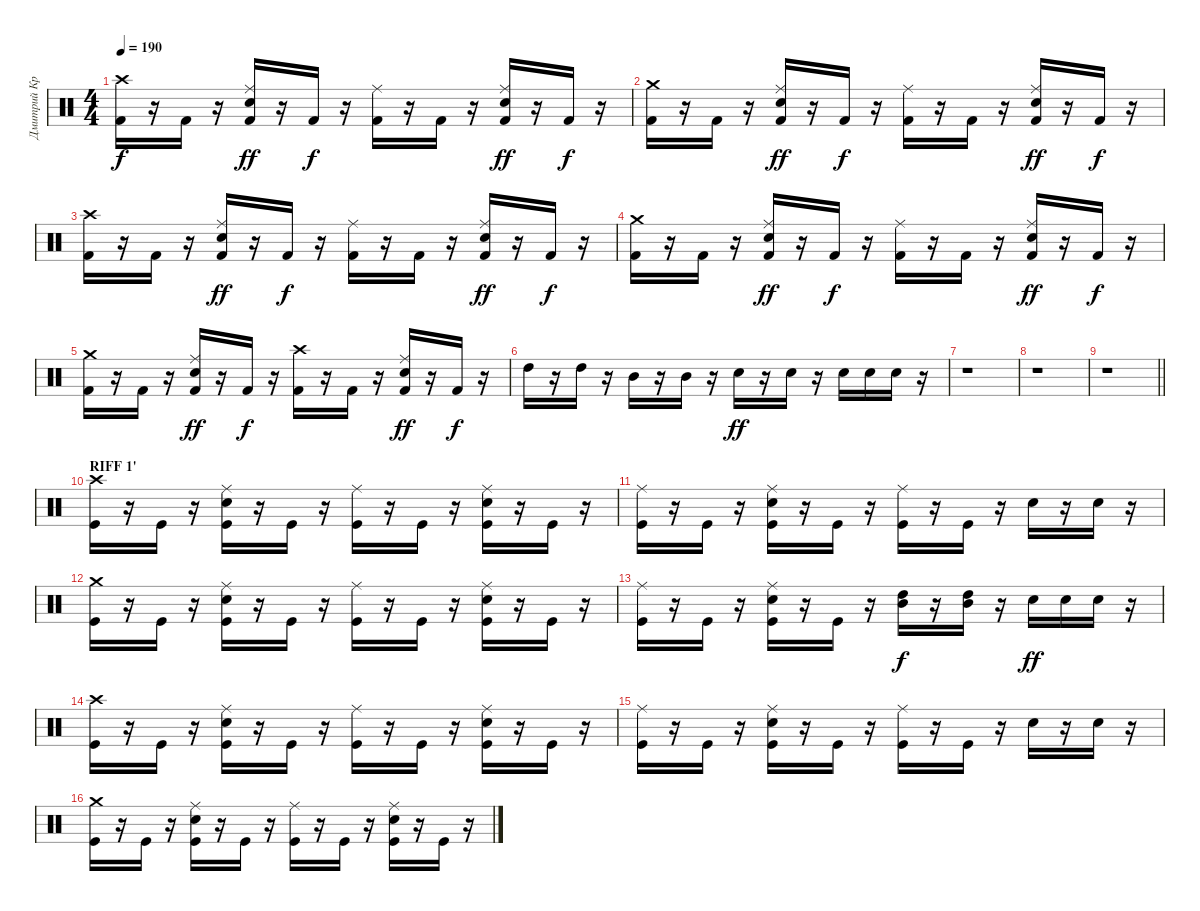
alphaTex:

\track ("Дмитрий Кривенков" "Дмитрий Кр") {instrument percussion}
\staff {score}
\articulation defaults
\ts (4 4)
\tempo 190
\clef neutral
\ks c
("Crash high (hit)" "Kick (hit) 2").16{dy f} r.16 "Kick (hit) 2".16 r.16 ("Ride (middle)" "Kick (hit) 2" "Snare (hit) 2").16{dy ff} r.16 "Kick (hit) 2".16{dy f} r.16 ("Ride (middle)" "Kick (hit) 2").16 r.16 "Kick (hit) 2".16 r.16 ("Ride (middle)" "Kick (hit) 2" "Snare (hit) 2").16{dy ff} r.16 "Kick (hit) 2".16{dy f} r.16 |
("Crash medium (hit)" "Kick (hit) 2").16 r.16 "Kick (hit) 2".16 r.16 ("Ride (middle)" "Snare (hit) 2" "Kick (hit) 2").16{dy ff} r.16 "Kick (hit) 2".16{dy f} r.16 ("Ride (middle)" "Kick (hit) 2").16 r.16 "Kick (hit) 2".16 r.16 ("Ride (middle)" "Snare (hit) 2" "Kick (hit) 2").16{dy ff} r.16 "Kick (hit) 2".16{dy f} r.16 |
("Crash high (hit)" "Kick (hit) 2").16 r.16 "Kick (hit) 2".16 r.16 ("Ride (middle)" "Kick (hit) 2" "Snare (hit) 2").16{dy ff} r.16 "Kick (hit) 2".16{dy f} r.16 ("Ride (middle)" "Kick (hit) 2").16 r.16 "Kick (hit) 2".16 r.16 ("Ride (middle)" "Kick (hit) 2" "Snare (hit) 2").16{dy ff} r.16 "Kick (hit) 2".16{dy f} r.16 |
("Crash medium (hit)" "Kick (hit) 2").16 r.16 "Kick (hit) 2".16 r.16 ("Ride (middle)" "Snare (hit) 2" "Kick (hit) 2").16{dy ff} r.16 "Kick (hit) 2".16{dy f} r.16 ("Ride (middle)" "Kick (hit) 2").16 r.16 "Kick (hit) 2".16 r.16 ("Ride (middle)" "Snare (hit) 2" "Kick (hit) 2").16{dy ff} r.16 "Kick (hit) 2".16{dy f} r.16 |
("Crash medium (hit)" "Kick (hit) 2").16 r.16 "Kick (hit) 2".16 r.16 ("Ride (middle)" "Snare (hit) 2" "Kick (hit) 2").16{dy ff} r.16 "Kick (hit) 2".16{dy f} r.16 ("Crash high (hit)" "Kick (hit) 2").16 r.16 "Kick (hit) 2".16 r.16 ("Ride (middle)" "Snare (hit) 2" "Kick (hit) 2").16{dy ff} r.16 "Kick (hit) 2".16{dy f} r.16 |
"High Tom (hit)".16 r.16 "High Tom (hit)".16 r.16 "Mid Tom (hit)".16 r.16 "Mid Tom (hit)".16 r.16 "Snare (hit) 2".16{dy ff} r.16 "Snare (hit) 2".16 r.16 "Snare (hit) 2".16 "Snare (hit) 2".16 "Snare (hit) 2".16 r.16 |
r.1 |
r.1 |
\barLineRight lightlight
r.1 |
\section ("" "RIFF 1'")
("Crash high (hit)" "Kick (hit)").16 r.16 "Kick (hit)".16 r.16 ("Ride (middle)" "Kick (hit)" "Snare (hit) 2").16 r.16 "Kick (hit)".16 r.16 ("Ride (middle)" "Kick (hit)").16 r.16 "Kick (hit)".16 r.16 ("Ride (middle)" "Kick (hit)" "Snare (hit) 2").16 r.16 "Kick (hit)".16 r.16 |
("Ride (middle)" "Kick (hit)").16 r.16 "Kick (hit)".16 r.16 ("Ride (middle)" "Kick (hit)" "Snare (hit) 2").16 r.16 "Kick (hit)".16 r.16 ("Ride (middle)" "Kick (hit)").16 r.16 "Kick (hit)".16 r.16 "Snare (hit) 2".16 r.16 "Snare (hit) 2".16 r.16 |
("Crash medium (hit)" "Kick (hit)").16 r.16 "Kick (hit)".16 r.16 ("Kick (hit)" "Snare (hit) 2" "Ride (middle)").16 r.16 "Kick (hit)".16 r.16 ("Kick (hit)" "Ride (middle)").16 r.16 "Kick (hit)".16 r.16 ("Kick (hit)" "Snare (hit) 2" "Ride (middle)").16 r.16 "Kick (hit)".16 r.16 |
("Ride (middle)" "Kick (hit)").16 r.16 "Kick (hit)".16 r.16 ("Ride (middle)" "Kick (hit)" "Snare (hit) 2").16 r.16 "Kick (hit)".16 r.16 ("Mid Tom (hit)" "High Tom (hit)").16{dy f} r.16 ("Mid Tom (hit)" "High Tom (hit)").16 r.16 "Snare (hit) 2".16{dy ff} "Snare (hit) 2".16 "Snare (hit) 2".16 r.16 |
("Crash high (hit)" "Kick (hit)").16 r.16 "Kick (hit)".16 r.16 ("Ride (middle)" "Kick (hit)" "Snare (hit) 2").16 r.16 "Kick (hit)".16 r.16 ("Ride (middle)" "Kick (hit)").16 r.16 "Kick (hit)".16 r.16 ("Ride (middle)" "Kick (hit)" "Snare (hit) 2").16 r.16 "Kick (hit)".16 r.16 |
("Ride (middle)" "Kick (hit)").16 r.16 "Kick (hit)".16 r.16 ("Ride (middle)" "Kick (hit)" "Snare (hit) 2").16 r.16 "Kick (hit)".16 r.16 ("Ride (middle)" "Kick (hit)").16 r.16 "Kick (hit)".16 r.16 "Snare (hit) 2".16 r.16 "Snare (hit) 2".16 r.16 |
("Crash medium (hit)" "Kick (hit)").16 r.16 "Kick (hit)".16 r.16 ("Kick (hit)" "Snare (hit) 2" "Ride (middle)").16 r.16 "Kick (hit)".16 r.16 ("Kick (hit)" "Ride (middle)").16 r.16 "Kick (hit)".16 r.16 ("Kick (hit)" "Snare (hit) 2" "Ride (middle)").16 r.16 "Kick (hit)".16 r.16
